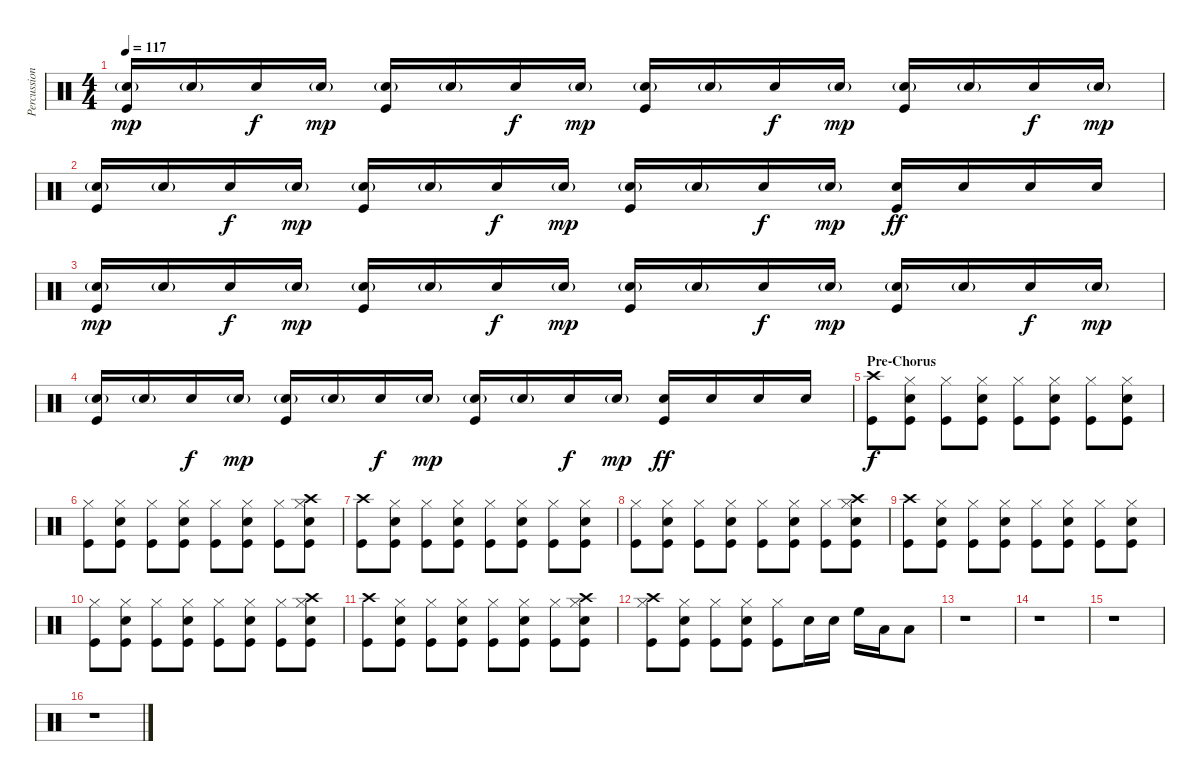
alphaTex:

\track ("Percussion" "Percussion") {instrument percussion}
\staff {score}
\articulation defaults
\ts (4 4)
\tempo 117
\clef neutral
\ks c
("Snare (hit) 2"{g} "Kick (hit)").16{dy mp} "Snare (hit) 2"{g}.16 "Snare (hit) 2".16{dy f} "Snare (hit) 2"{g}.16{dy mp} ("Snare (hit) 2"{g} "Kick (hit)").16 "Snare (hit) 2"{g}.16 "Snare (hit) 2".16{dy f} "Snare (hit) 2"{g}.16{dy mp} ("Snare (hit) 2"{g} "Kick (hit)").16 "Snare (hit) 2"{g}.16 "Snare (hit) 2".16{dy f} "Snare (hit) 2"{g}.16{dy mp} ("Snare (hit) 2"{g} "Kick (hit)").16 "Snare (hit) 2"{g}.16 "Snare (hit) 2".16{dy f} "Snare (hit) 2"{g}.16{dy mp} |
("Snare (hit) 2"{g} "Kick (hit)").16 "Snare (hit) 2"{g}.16 "Snare (hit) 2".16{dy f} "Snare (hit) 2"{g}.16{dy mp} ("Snare (hit) 2"{g} "Kick (hit)").16 "Snare (hit) 2"{g}.16 "Snare (hit) 2".16{dy f} "Snare (hit) 2"{g}.16{dy mp} ("Snare (hit) 2"{g} "Kick (hit)").16 "Snare (hit) 2"{g}.16 "Snare (hit) 2".16{dy f} "Snare (hit) 2"{g}.16{dy mp} ("Snare (hit) 2" "Kick (hit)").16{dy ff} "Snare (hit) 2".16 "Snare (hit) 2".16 "Snare (hit) 2".16 |
("Snare (hit) 2"{g} "Kick (hit)").16{dy mp} "Snare (hit) 2"{g}.16 "Snare (hit) 2".16{dy f} "Snare (hit) 2"{g}.16{dy mp} ("Snare (hit) 2"{g} "Kick (hit)").16 "Snare (hit) 2"{g}.16 "Snare (hit) 2".16{dy f} "Snare (hit) 2"{g}.16{dy mp} ("Snare (hit) 2"{g} "Kick (hit)").16 "Snare (hit) 2"{g}.16 "Snare (hit) 2".16{dy f} "Snare (hit) 2"{g}.16{dy mp} ("Snare (hit) 2"{g} "Kick (hit)").16 "Snare (hit) 2"{g}.16 "Snare (hit) 2".16{dy f} "Snare (hit) 2"{g}.16{dy mp} |
("Snare (hit) 2"{g} "Kick (hit)").16 "Snare (hit) 2"{g}.16 "Snare (hit) 2".16{dy f} "Snare (hit) 2"{g}.16{dy mp} ("Snare (hit) 2"{g} "Kick (hit)").16 "Snare (hit) 2"{g}.16 "Snare (hit) 2".16{dy f} "Snare (hit) 2"{g}.16{dy mp} ("Snare (hit) 2"{g} "Kick (hit)").16 "Snare (hit) 2"{g}.16 "Snare (hit) 2".16{dy f} "Snare (hit) 2"{g}.16{dy mp} ("Snare (hit) 2" "Kick (hit)").16{dy ff} "Snare (hit) 2".16 "Snare (hit) 2".16 "Snare (hit) 2".16 |
\section ("" "Pre-Chorus")
("Crash high (hit)" "Kick (hit)").8{dy f} ("Hi-Hat (closed)" "Snare (hit) 2" "Kick (hit)").8 ("Hi-Hat (closed)" "Kick (hit)").8 ("Hi-Hat (closed)" "Snare (hit) 2" "Kick (hit)").8 ("Hi-Hat (closed)" "Kick (hit)").8 ("Hi-Hat (closed)" "Snare (hit) 2" "Kick (hit)").8 ("Hi-Hat (closed)" "Kick (hit)").8 ("Hi-Hat (closed)" "Snare (hit) 2" "Kick (hit)").8 |
("Hi-Hat (closed)" "Kick (hit)").8 ("Hi-Hat (closed)" "Snare (hit) 2" "Kick (hit)").8 ("Hi-Hat (closed)" "Kick (hit)").8 ("Hi-Hat (closed)" "Snare (hit) 2" "Kick (hit)").8 ("Hi-Hat (closed)" "Kick (hit)").8 ("Hi-Hat (closed)" "Snare (hit) 2" "Kick (hit)").8 ("Hi-Hat (closed)" "Kick (hit)").8 ("Crash high (hit)" "Hi-Hat (closed)" "Snare (hit) 2" "Kick (hit)").8 |
("Crash high (hit)" "Kick (hit)").8 ("Hi-Hat (closed)" "Snare (hit) 2" "Kick (hit)").8 ("Hi-Hat (closed)" "Kick (hit)").8 ("Hi-Hat (closed)" "Snare (hit) 2" "Kick (hit)").8 ("Hi-Hat (closed)" "Kick (hit)").8 ("Hi-Hat (closed)" "Snare (hit) 2" "Kick (hit)").8 ("Hi-Hat (closed)" "Kick (hit)").8 ("Hi-Hat (closed)" "Snare (hit) 2" "Kick (hit)").8 |
("Hi-Hat (closed)" "Kick (hit)").8 ("Hi-Hat (closed)" "Snare (hit) 2" "Kick (hit)").8 ("Hi-Hat (closed)" "Kick (hit)").8 ("Hi-Hat (closed)" "Snare (hit) 2" "Kick (hit)").8 ("Hi-Hat (closed)" "Kick (hit)").8 ("Hi-Hat (closed)" "Snare (hit) 2" "Kick (hit)").8 ("Hi-Hat (closed)" "Kick (hit)").8 ("Crash high (hit)" "Hi-Hat (closed)" "Snare (hit) 2" "Kick (hit)").8 |
("Crash high (hit)" "Kick (hit)").8 ("Hi-Hat (closed)" "Snare (hit) 2" "Kick (hit)").8 ("Hi-Hat (closed)" "Kick (hit)").8 ("Hi-Hat (closed)" "Snare (hit) 2" "Kick (hit)").8 ("Hi-Hat (closed)" "Kick (hit)").8 ("Hi-Hat (closed)" "Snare (hit) 2" "Kick (hit)").8 ("Hi-Hat (closed)" "Kick (hit)").8 ("Hi-Hat (closed)" "Snare (hit) 2" "Kick (hit)").8 |
("Hi-Hat (closed)" "Kick (hit)").8 ("Hi-Hat (closed)" "Snare (hit) 2" "Kick (hit)").8 ("Hi-Hat (closed)" "Kick (hit)").8 ("Hi-Hat (closed)" "Snare (hit) 2" "Kick (hit)").8 ("Hi-Hat (closed)" "Kick (hit)").8 ("Hi-Hat (closed)" "Snare (hit) 2" "Kick (hit)").8 ("Hi-Hat (closed)" "Kick (hit)").8 ("Crash high (hit)" "Hi-Hat (closed)" "Snare (hit) 2" "Kick (hit)").8 |
("Crash high (hit)" "Kick (hit)").8 ("Hi-Hat (closed)" "Snare (hit) 2" "Kick (hit)").8 ("Hi-Hat (closed)" "Kick (hit)").8 ("Hi-Hat (closed)" "Snare (hit) 2" "Kick (hit)").8 ("Hi-Hat (closed)" "Kick (hit)").8 ("Hi-Hat (closed)" "Snare (hit) 2" "Kick (hit)").8 ("Hi-Hat (closed)" "Kick (hit)").8 ("Crash high (hit)" "Hi-Hat (closed)" "Snare (hit) 2" "Kick (hit)").8 |
("Crash high (hit)" "Hi-Hat (closed)" "Kick (hit)").8 ("Hi-Hat (closed)" "Snare (hit) 2" "Kick (hit)").8 ("Hi-Hat (closed)" "Kick (hit)").8 ("Hi-Hat (closed)" "Snare (hit) 2" "Kick (hit)").8 ("Hi-Hat (closed)" "Kick (hit)").8 "Snare (hit) 2".16 "Snare (hit) 2".16 "High Floor Tom (hit)".16 "Low Tom (hit)".16 "Low Tom (hit)".8 |
r.1 |
r.1 |
r.1 |
r.1
